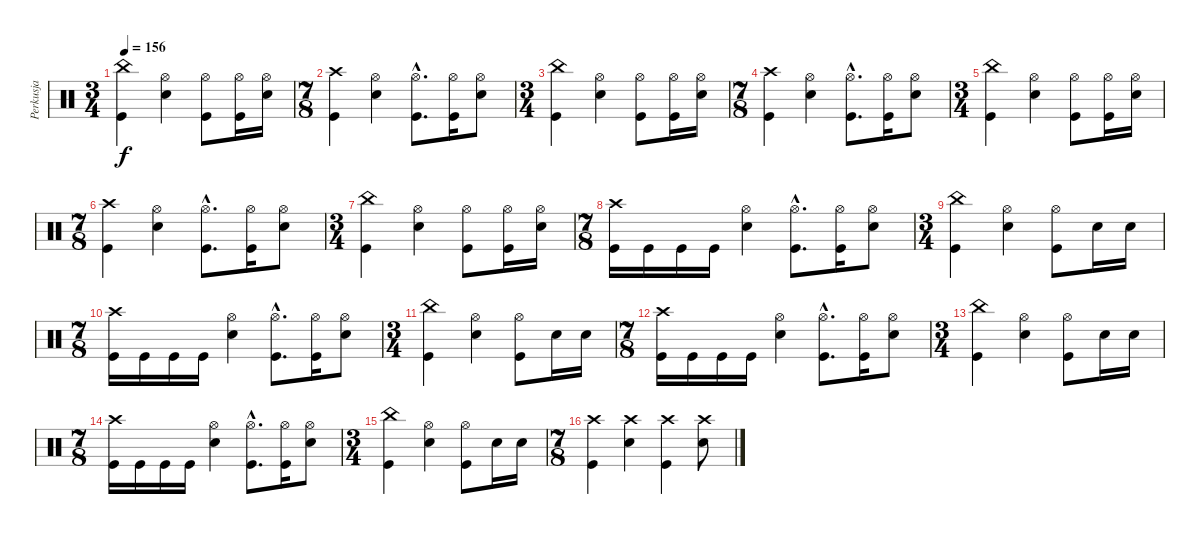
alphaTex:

\track ("Perkusja" "Perkusja") {instrument percussion}
\staff {score}
\articulation defaults
\ts (3 4)
\tempo 156
\clef neutral
\ks c
("China (hit)" "Kick (hit)").4{dy f} ("Hi-Hat (open)" "Snare (hit) 2").4 ("Hi-Hat (open)" "Kick (hit)").8 ("Hi-Hat (open)" "Kick (hit)").16 ("Hi-Hat (open)" "Snare (hit) 2").16 |
\ts (7 8)
("Crash high (hit)" "Kick (hit)").4 ("Hi-Hat (open)" "Snare (hit) 2").4 ("Hi-Hat (open)"{hac} "Kick (hit)"{hac}).8{d} ("Hi-Hat (open)" "Kick (hit)").16 ("Hi-Hat (open)" "Snare (hit) 2").8 |
\ts (3 4)
("China (hit)" "Kick (hit)").4 ("Hi-Hat (open)" "Snare (hit) 2").4 ("Hi-Hat (open)" "Kick (hit)").8 ("Hi-Hat (open)" "Kick (hit)").16 ("Hi-Hat (open)" "Snare (hit) 2").16 |
\ts (7 8)
("Crash high (hit)" "Kick (hit)").4 ("Hi-Hat (open)" "Snare (hit) 2").4 ("Hi-Hat (open)"{hac} "Kick (hit)"{hac}).8{d} ("Hi-Hat (open)" "Kick (hit)").16 ("Hi-Hat (open)" "Snare (hit) 2").8 |
\ts (3 4)
("China (hit)" "Kick (hit)").4 ("Hi-Hat (open)" "Snare (hit) 2").4 ("Hi-Hat (open)" "Kick (hit)").8 ("Hi-Hat (open)" "Kick (hit)").16 ("Hi-Hat (open)" "Snare (hit) 2").16 |
\ts (7 8)
("Crash high (hit)" "Kick (hit)").4 ("Hi-Hat (open)" "Snare (hit) 2").4 ("Hi-Hat (open)"{hac} "Kick (hit)"{hac}).8{d} ("Hi-Hat (open)" "Kick (hit)").16 ("Hi-Hat (open)" "Snare (hit) 2").8 |
\ts (3 4)
("China (hit)" "Kick (hit)").4 ("Hi-Hat (open)" "Snare (hit) 2").4 ("Hi-Hat (open)" "Kick (hit)").8 ("Hi-Hat (open)" "Kick (hit)").16 ("Hi-Hat (open)" "Snare (hit) 2").16 |
\ts (7 8)
("Crash high (hit)" "Kick (hit)").16 "Kick (hit)".16 "Kick (hit)".16 "Kick (hit)".16 ("Hi-Hat (open)" "Snare (hit) 2").4 ("Hi-Hat (open)"{hac} "Kick (hit)"{hac}).8{d} ("Hi-Hat (open)" "Kick (hit)").16 ("Hi-Hat (open)" "Snare (hit) 2").8 |
\ts (3 4)
("China (hit)" "Kick (hit)").4 ("Hi-Hat (open)" "Snare (hit) 2").4 ("Hi-Hat (open)" "Kick (hit)").8 "Snare (hit) 2".16 "Snare (hit) 2".16 |
\ts (7 8)
("Crash high (hit)" "Kick (hit)").16 "Kick (hit)".16 "Kick (hit)".16 "Kick (hit)".16 ("Hi-Hat (open)" "Snare (hit) 2").4 ("Hi-Hat (open)"{hac} "Kick (hit)"{hac}).8{d} ("Hi-Hat (open)" "Kick (hit)").16 ("Hi-Hat (open)" "Snare (hit) 2").8 |
\ts (3 4)
("China (hit)" "Kick (hit)").4 ("Hi-Hat (open)" "Snare (hit) 2").4 ("Hi-Hat (open)" "Kick (hit)").8 "Snare (hit) 2".16 "Snare (hit) 2".16 |
\ts (7 8)
("Crash high (hit)" "Kick (hit)").16 "Kick (hit)".16 "Kick (hit)".16 "Kick (hit)".16 ("Hi-Hat (open)" "Snare (hit) 2").4 ("Hi-Hat (open)"{hac} "Kick (hit)"{hac}).8{d} ("Hi-Hat (open)" "Kick (hit)").16 ("Hi-Hat (open)" "Snare (hit) 2").8 |
\ts (3 4)
("China (hit)" "Kick (hit)").4 ("Hi-Hat (open)" "Snare (hit) 2").4 ("Hi-Hat (open)" "Kick (hit)").8 "Snare (hit) 2".16 "Snare (hit) 2".16 |
\ts (7 8)
("Crash high (hit)" "Kick (hit)").16 "Kick (hit)".16 "Kick (hit)".16 "Kick (hit)".16 ("Hi-Hat (open)" "Snare (hit) 2").4 ("Hi-Hat (open)"{hac} "Kick (hit)"{hac}).8{d} ("Hi-Hat (open)" "Kick (hit)").16 ("Hi-Hat (open)" "Snare (hit) 2").8 |
\ts (3 4)
("China (hit)" "Kick (hit)").4 ("Hi-Hat (open)" "Snare (hit) 2").4 ("Hi-Hat (open)" "Kick (hit)").8 "Snare (hit) 2".16 "Snare (hit) 2".16 |
\ts (7 8)
("Crash high (hit)" "Kick (hit)").4 ("Crash high (hit)" "Snare (hit) 2").4 ("Crash high (hit)" "Kick (hit)").4 ("Crash high (hit)" "Snare (hit) 2").8
